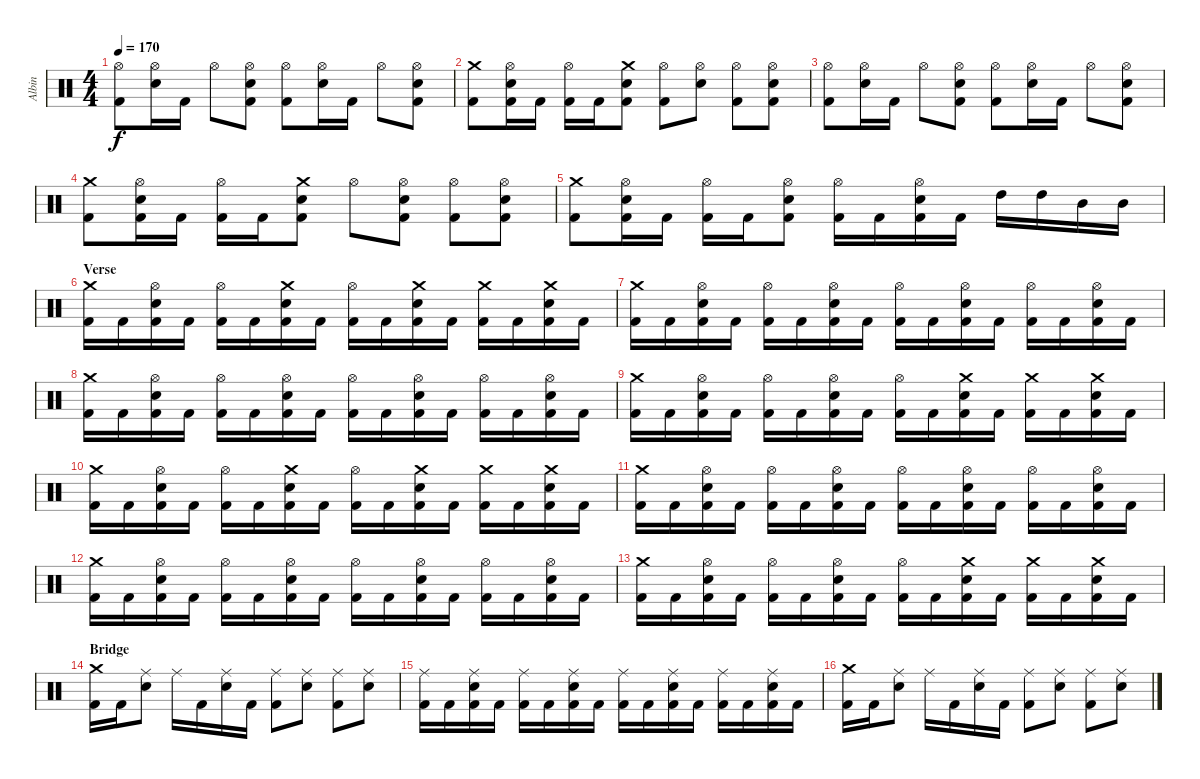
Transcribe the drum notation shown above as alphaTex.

\track ("Albin" "Albin") {instrument percussion}
\staff {score}
\articulation defaults
\ts (4 4)
\tempo 170
\clef neutral
\ks c
("Hi-Hat (open)" "Kick (hit) 2").8{dy f} ("Hi-Hat (open)" "Electric Snare (hit)").16 "Kick (hit) 2".16 "Hi-Hat (open)".8 ("Hi-Hat (open)" "Electric Snare (hit)" "Kick (hit) 2").8 ("Hi-Hat (open)" "Kick (hit) 2").8 ("Hi-Hat (open)" "Electric Snare (hit)").16 "Kick (hit) 2".16 "Hi-Hat (open)".8 ("Hi-Hat (open)" "Electric Snare (hit)" "Kick (hit) 2").8 |
("Crash medium (hit)" "Kick (hit) 2").8 ("Hi-Hat (open)" "Electric Snare (hit)" "Kick (hit) 2").16 "Kick (hit) 2".16 ("Hi-Hat (open)" "Kick (hit) 2").16 "Kick (hit) 2".16 ("Crash medium (hit)" "Electric Snare (hit)" "Kick (hit) 2").8 ("Hi-Hat (open)" "Kick (hit) 2").8 ("Hi-Hat (open)" "Electric Snare (hit)").8 ("Hi-Hat (open)" "Kick (hit) 2").8 ("Hi-Hat (open)" "Electric Snare (hit)" "Kick (hit) 2").8 |
("Hi-Hat (open)" "Kick (hit) 2").8 ("Hi-Hat (open)" "Electric Snare (hit)").16 "Kick (hit) 2".16 "Hi-Hat (open)".8 ("Hi-Hat (open)" "Electric Snare (hit)" "Kick (hit) 2").8 ("Hi-Hat (open)" "Kick (hit) 2").8 ("Hi-Hat (open)" "Electric Snare (hit)").16 "Kick (hit) 2".16 "Hi-Hat (open)".8 ("Hi-Hat (open)" "Electric Snare (hit)" "Kick (hit) 2").8 |
("Crash medium (hit)" "Kick (hit) 2").8 ("Hi-Hat (open)" "Electric Snare (hit)" "Kick (hit) 2").16 "Kick (hit) 2".16 ("Hi-Hat (open)" "Kick (hit) 2").16 "Kick (hit) 2".16 ("Crash medium (hit)" "Electric Snare (hit)" "Kick (hit) 2").8 "Hi-Hat (open)".8 ("Hi-Hat (open)" "Electric Snare (hit)" "Kick (hit) 2").8 ("Hi-Hat (open)" "Kick (hit) 2").8 ("Hi-Hat (open)" "Electric Snare (hit)" "Kick (hit) 2").8 |
("Crash medium (hit)" "Kick (hit) 2").8 ("Hi-Hat (open)" "Electric Snare (hit)" "Kick (hit) 2").16 "Kick (hit) 2".16 ("Hi-Hat (open)" "Kick (hit) 2").16 "Kick (hit) 2".16 ("Hi-Hat (open)" "Electric Snare (hit)" "Kick (hit) 2").8 ("Hi-Hat (open)" "Kick (hit) 2").16 "Kick (hit) 2".16 ("Hi-Hat (open)" "Electric Snare (hit)" "Kick (hit) 2").16 "Kick (hit) 2".16 "High Tom (hit)".16 "High Tom (hit)".16 "Mid Tom (hit)".16 "Mid Tom (hit)".16 |
\section ("" "Verse")
("Crash medium (hit)" "Kick (hit) 2").16 "Kick (hit) 2".16 ("Hi-Hat (open)" "Electric Snare (hit)" "Kick (hit) 2").16 "Kick (hit) 2".16 ("Hi-Hat (open)" "Kick (hit) 2").16 "Kick (hit) 2".16 ("Crash medium (hit)" "Electric Snare (hit)" "Kick (hit) 2").16 "Kick (hit) 2".16 ("Hi-Hat (open)" "Kick (hit) 2").16 "Kick (hit) 2".16 ("Crash medium (hit)" "Electric Snare (hit)" "Kick (hit) 2").16 "Kick (hit) 2".16 ("Crash medium (hit)" "Kick (hit) 2").16 "Kick (hit) 2".16 ("Crash medium (hit)" "Electric Snare (hit)" "Kick (hit) 2").16 "Kick (hit) 2".16 |
("Crash medium (hit)" "Kick (hit) 2").16 "Kick (hit) 2".16 ("Hi-Hat (open)" "Electric Snare (hit)" "Kick (hit) 2").16 "Kick (hit) 2".16 ("Hi-Hat (open)" "Kick (hit) 2").16 "Kick (hit) 2".16 ("Hi-Hat (open)" "Electric Snare (hit)" "Kick (hit) 2").16 "Kick (hit) 2".16 ("Hi-Hat (open)" "Kick (hit) 2").16 "Kick (hit) 2".16 ("Hi-Hat (open)" "Electric Snare (hit)" "Kick (hit) 2").16 "Kick (hit) 2".16 ("Hi-Hat (open)" "Kick (hit) 2").16 "Kick (hit) 2".16 ("Hi-Hat (open)" "Electric Snare (hit)" "Kick (hit) 2").16 "Kick (hit) 2".16 |
("Crash medium (hit)" "Kick (hit) 2").16 "Kick (hit) 2".16 ("Hi-Hat (open)" "Electric Snare (hit)" "Kick (hit) 2").16 "Kick (hit) 2".16 ("Hi-Hat (open)" "Kick (hit) 2").16 "Kick (hit) 2".16 ("Hi-Hat (open)" "Electric Snare (hit)" "Kick (hit) 2").16 "Kick (hit) 2".16 ("Hi-Hat (open)" "Kick (hit) 2").16 "Kick (hit) 2".16 ("Hi-Hat (open)" "Electric Snare (hit)" "Kick (hit) 2").16 "Kick (hit) 2".16 ("Hi-Hat (open)" "Kick (hit) 2").16 "Kick (hit) 2".16 ("Hi-Hat (open)" "Electric Snare (hit)" "Kick (hit) 2").16 "Kick (hit) 2".16 |
("Crash medium (hit)" "Kick (hit) 2").16 "Kick (hit) 2".16 ("Hi-Hat (open)" "Electric Snare (hit)" "Kick (hit) 2").16 "Kick (hit) 2".16 ("Hi-Hat (open)" "Kick (hit) 2").16 "Kick (hit) 2".16 ("Hi-Hat (open)" "Electric Snare (hit)" "Kick (hit) 2").16 "Kick (hit) 2".16 ("Hi-Hat (open)" "Kick (hit) 2").16 "Kick (hit) 2".16 ("Crash medium (hit)" "Electric Snare (hit)" "Kick (hit) 2").16 "Kick (hit) 2".16 ("Crash medium (hit)" "Kick (hit) 2").16 "Kick (hit) 2".16 ("Crash medium (hit)" "Electric Snare (hit)" "Kick (hit) 2").16 "Kick (hit) 2".16 |
("Crash medium (hit)" "Kick (hit) 2").16 "Kick (hit) 2".16 ("Hi-Hat (open)" "Electric Snare (hit)" "Kick (hit) 2").16 "Kick (hit) 2".16 ("Hi-Hat (open)" "Kick (hit) 2").16 "Kick (hit) 2".16 ("Crash medium (hit)" "Electric Snare (hit)" "Kick (hit) 2").16 "Kick (hit) 2".16 ("Hi-Hat (open)" "Kick (hit) 2").16 "Kick (hit) 2".16 ("Crash medium (hit)" "Electric Snare (hit)" "Kick (hit) 2").16 "Kick (hit) 2".16 ("Crash medium (hit)" "Kick (hit) 2").16 "Kick (hit) 2".16 ("Crash medium (hit)" "Electric Snare (hit)" "Kick (hit) 2").16 "Kick (hit) 2".16 |
("Crash medium (hit)" "Kick (hit) 2").16 "Kick (hit) 2".16 ("Hi-Hat (open)" "Electric Snare (hit)" "Kick (hit) 2").16 "Kick (hit) 2".16 ("Hi-Hat (open)" "Kick (hit) 2").16 "Kick (hit) 2".16 ("Hi-Hat (open)" "Electric Snare (hit)" "Kick (hit) 2").16 "Kick (hit) 2".16 ("Hi-Hat (open)" "Kick (hit) 2").16 "Kick (hit) 2".16 ("Hi-Hat (open)" "Electric Snare (hit)" "Kick (hit) 2").16 "Kick (hit) 2".16 ("Hi-Hat (open)" "Kick (hit) 2").16 "Kick (hit) 2".16 ("Hi-Hat (open)" "Electric Snare (hit)" "Kick (hit) 2").16 "Kick (hit) 2".16 |
("Crash medium (hit)" "Kick (hit) 2").16 "Kick (hit) 2".16 ("Hi-Hat (open)" "Electric Snare (hit)" "Kick (hit) 2").16 "Kick (hit) 2".16 ("Hi-Hat (open)" "Kick (hit) 2").16 "Kick (hit) 2".16 ("Hi-Hat (open)" "Electric Snare (hit)" "Kick (hit) 2").16 "Kick (hit) 2".16 ("Hi-Hat (open)" "Kick (hit) 2").16 "Kick (hit) 2".16 ("Hi-Hat (open)" "Electric Snare (hit)" "Kick (hit) 2").16 "Kick (hit) 2".16 ("Hi-Hat (open)" "Kick (hit) 2").16 "Kick (hit) 2".16 ("Hi-Hat (open)" "Electric Snare (hit)" "Kick (hit) 2").16 "Kick (hit) 2".16 |
("Crash medium (hit)" "Kick (hit) 2").16 "Kick (hit) 2".16 ("Hi-Hat (open)" "Electric Snare (hit)" "Kick (hit) 2").16 "Kick (hit) 2".16 ("Hi-Hat (open)" "Kick (hit) 2").16 "Kick (hit) 2".16 ("Hi-Hat (open)" "Electric Snare (hit)" "Kick (hit) 2").16 "Kick (hit) 2".16 ("Hi-Hat (open)" "Kick (hit) 2").16 "Kick (hit) 2".16 ("Crash medium (hit)" "Electric Snare (hit)" "Kick (hit) 2").16 "Kick (hit) 2".16 ("Crash medium (hit)" "Kick (hit) 2").16 "Kick (hit) 2".16 ("Crash medium (hit)" "Electric Snare (hit)" "Kick (hit) 2").16 "Kick (hit) 2".16 |
\section ("" "Bridge")
("Crash medium (hit)" "Kick (hit) 2").16 "Kick (hit) 2".16 ("Ride (middle)" "Electric Snare (hit)").8 "Ride (middle)".16 "Kick (hit) 2".16 ("Ride (middle)" "Electric Snare (hit)").16 "Kick (hit) 2".16 ("Ride (middle)" "Kick (hit) 2").8 ("Ride (middle)" "Electric Snare (hit)").8 ("Ride (middle)" "Kick (hit) 2").8 ("Ride (middle)" "Electric Snare (hit)").8 |
("Ride (middle)" "Kick (hit) 2").16 "Kick (hit) 2".16 ("Ride (middle)" "Electric Snare (hit)" "Kick (hit) 2").16 "Kick (hit) 2".16 ("Ride (middle)" "Kick (hit) 2").16 "Kick (hit) 2".16 ("Ride (middle)" "Electric Snare (hit)" "Kick (hit) 2").16 "Kick (hit) 2".16 ("Ride (middle)" "Kick (hit) 2").16 "Kick (hit) 2".16 ("Ride (middle)" "Electric Snare (hit)" "Kick (hit) 2").16 "Kick (hit) 2".16 ("Ride (middle)" "Kick (hit) 2").16 "Kick (hit) 2".16 ("Ride (middle)" "Electric Snare (hit)" "Kick (hit) 2").16 "Kick (hit) 2".16 |
("Crash medium (hit)" "Kick (hit) 2").16 "Kick (hit) 2".16 ("Ride (middle)" "Electric Snare (hit)").8 "Ride (middle)".16 "Kick (hit) 2".16 ("Ride (middle)" "Electric Snare (hit)").16 "Kick (hit) 2".16 ("Ride (middle)" "Kick (hit) 2").8 ("Ride (middle)" "Electric Snare (hit)").8 ("Ride (middle)" "Kick (hit) 2").8 ("Ride (middle)" "Electric Snare (hit)").8
